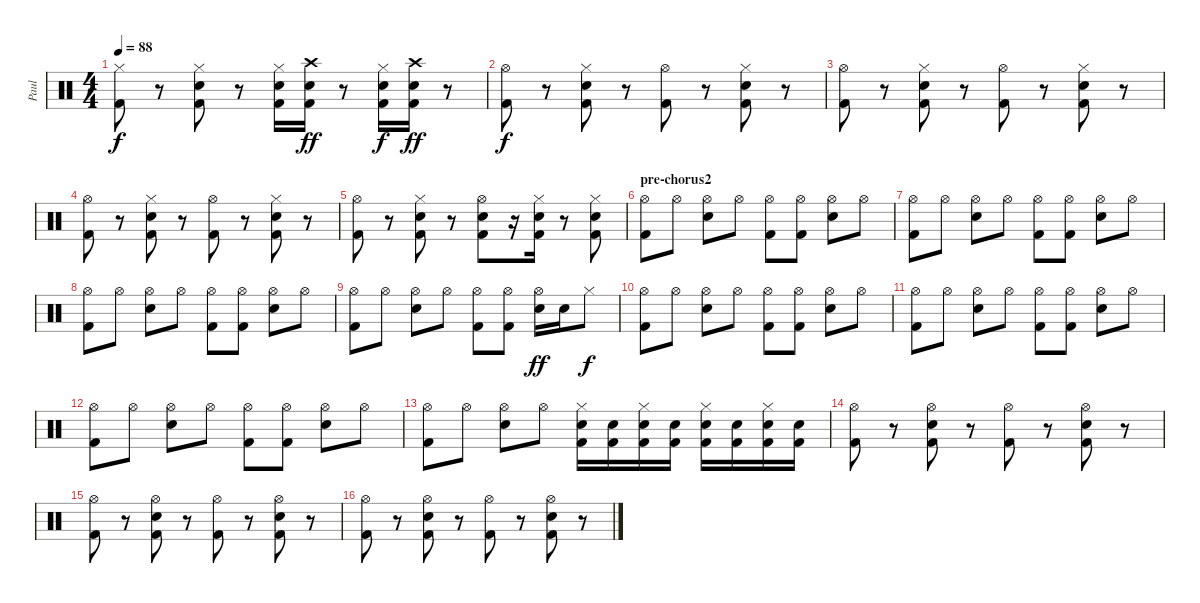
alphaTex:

\track ("Paul" "Paul") {instrument percussion}
\staff {score}
\articulation defaults
\ts (4 4)
\tempo 88
\clef neutral
\ks c
("Hi-Hat (closed)" "Kick (hit) 2").8{dy f} r.8 ("Snare (hit) 2" "Hi-Hat (closed)" "Kick (hit) 2").8 r.8 ("Snare (hit) 2" "Hi-Hat (closed)" "Kick (hit) 2").16 ("Snare (hit) 2" "Crash high (hit)" "Kick (hit) 2").16{dy ff} r.8 ("Snare (hit) 2" "Hi-Hat (closed)" "Kick (hit) 2").16{dy f} ("Snare (hit) 2" "Crash high (hit)" "Kick (hit) 2").16{dy ff} r.8 |
("Hi-Hat (open)" "Kick (hit) 2").8{dy f} r.8 ("Snare (hit) 2" "Hi-Hat (closed)" "Kick (hit) 2").8 r.8 ("Hi-Hat (open)" "Kick (hit) 2").8 r.8 ("Snare (hit) 2" "Hi-Hat (closed)" "Kick (hit) 2").8 r.8 |
("Hi-Hat (open)" "Kick (hit) 2").8 r.8 ("Snare (hit) 2" "Hi-Hat (closed)" "Kick (hit) 2").8 r.8 ("Hi-Hat (open)" "Kick (hit) 2").8 r.8 ("Snare (hit) 2" "Hi-Hat (closed)" "Kick (hit) 2").8 r.8 |
("Hi-Hat (open)" "Kick (hit) 2").8 r.8 ("Snare (hit) 2" "Hi-Hat (closed)" "Kick (hit) 2").8 r.8 ("Hi-Hat (open)" "Kick (hit) 2").8 r.8 ("Snare (hit) 2" "Hi-Hat (closed)" "Kick (hit) 2").8 r.8 |
("Hi-Hat (open)" "Kick (hit) 2").8 r.8 ("Snare (hit) 2" "Hi-Hat (closed)" "Kick (hit) 2").8 r.8 ("Snare (hit) 2" "Hi-Hat (open)" "Kick (hit) 2").8 r.16 ("Snare (hit) 2" "Hi-Hat (closed)" "Kick (hit) 2").16 r.8 ("Snare (hit) 2" "Hi-Hat (closed)" "Kick (hit) 2").8 |
\section ("" "pre-chorus2")
("Hi-Hat (open)" "Kick (hit) 2").8 "Hi-Hat (open)".8 ("Snare (hit) 2" "Hi-Hat (open)").8 "Hi-Hat (open)".8 ("Hi-Hat (open)" "Kick (hit) 2").8 ("Hi-Hat (open)" "Kick (hit) 2").8 ("Snare (hit) 2" "Hi-Hat (open)").8 "Hi-Hat (open)".8 |
("Hi-Hat (open)" "Kick (hit) 2").8 "Hi-Hat (open)".8 ("Snare (hit) 2" "Hi-Hat (open)").8 "Hi-Hat (open)".8 ("Hi-Hat (open)" "Kick (hit) 2").8 ("Hi-Hat (open)" "Kick (hit) 2").8 ("Snare (hit) 2" "Hi-Hat (open)").8 "Hi-Hat (open)".8 |
("Hi-Hat (open)" "Kick (hit) 2").8 "Hi-Hat (open)".8 ("Snare (hit) 2" "Hi-Hat (open)").8 "Hi-Hat (open)".8 ("Hi-Hat (open)" "Kick (hit) 2").8 ("Hi-Hat (open)" "Kick (hit) 2").8 ("Snare (hit) 2" "Hi-Hat (open)").8 "Hi-Hat (open)".8 |
("Hi-Hat (open)" "Kick (hit) 2").8 "Hi-Hat (open)".8 ("Snare (hit) 2" "Hi-Hat (open)").8 "Hi-Hat (open)".8 ("Hi-Hat (open)" "Kick (hit) 2").8 ("Hi-Hat (open)" "Kick (hit) 2").8 ("Snare (hit) 2" "Hi-Hat (open)").16{dy ff} "Snare (hit) 2".16 "Hi-Hat (closed)".8{dy f} |
("Hi-Hat (open)" "Kick (hit) 2").8 "Hi-Hat (open)".8 ("Snare (hit) 2" "Hi-Hat (open)").8 "Hi-Hat (open)".8 ("Hi-Hat (open)" "Kick (hit) 2").8 ("Hi-Hat (open)" "Kick (hit) 2").8 ("Snare (hit) 2" "Hi-Hat (open)").8 "Hi-Hat (open)".8 |
("Hi-Hat (open)" "Kick (hit) 2").8 "Hi-Hat (open)".8 ("Snare (hit) 2" "Hi-Hat (open)").8 "Hi-Hat (open)".8 ("Hi-Hat (open)" "Kick (hit) 2").8 ("Hi-Hat (open)" "Kick (hit) 2").8 ("Snare (hit) 2" "Hi-Hat (open)").8 "Hi-Hat (open)".8 |
("Hi-Hat (open)" "Kick (hit) 2").8 "Hi-Hat (open)".8 ("Snare (hit) 2" "Hi-Hat (open)").8 "Hi-Hat (open)".8 ("Hi-Hat (open)" "Kick (hit) 2").8 ("Hi-Hat (open)" "Kick (hit) 2").8 ("Snare (hit) 2" "Hi-Hat (open)").8 "Hi-Hat (open)".8 |
("Hi-Hat (open)" "Kick (hit) 2").8 "Hi-Hat (open)".8 ("Snare (hit) 2" "Hi-Hat (open)").8 "Hi-Hat (open)".8 ("Snare (hit) 2" "Hi-Hat (closed)" "Kick (hit) 2").16 ("Snare (hit) 2" "Kick (hit) 2").16 ("Snare (hit) 2" "Hi-Hat (closed)" "Kick (hit) 2").16 ("Snare (hit) 2" "Kick (hit) 2").16 ("Snare (hit) 2" "Hi-Hat (closed)" "Kick (hit) 2").16 ("Snare (hit) 2" "Kick (hit) 2").16 ("Snare (hit) 2" "Hi-Hat (closed)" "Kick (hit) 2").16 ("Snare (hit) 2" "Kick (hit) 2").16 |
("Hi-Hat (open)" "Kick (hit) 2").8 r.8 ("Snare (hit) 2" "Hi-Hat (open)" "Kick (hit) 2").8 r.8 ("Hi-Hat (open)" "Kick (hit) 2").8 r.8 ("Snare (hit) 2" "Hi-Hat (open)" "Kick (hit) 2").8 r.8 |
("Hi-Hat (open)" "Kick (hit) 2").8 r.8 ("Snare (hit) 2" "Hi-Hat (open)" "Kick (hit) 2").8 r.8 ("Hi-Hat (open)" "Kick (hit) 2").8 r.8 ("Snare (hit) 2" "Hi-Hat (open)" "Kick (hit) 2").8 r.8 |
("Hi-Hat (open)" "Kick (hit) 2").8 r.8 ("Snare (hit) 2" "Hi-Hat (open)" "Kick (hit) 2").8 r.8 ("Hi-Hat (open)" "Kick (hit) 2").8 r.8 ("Snare (hit) 2" "Hi-Hat (open)" "Kick (hit) 2").8 r.8
